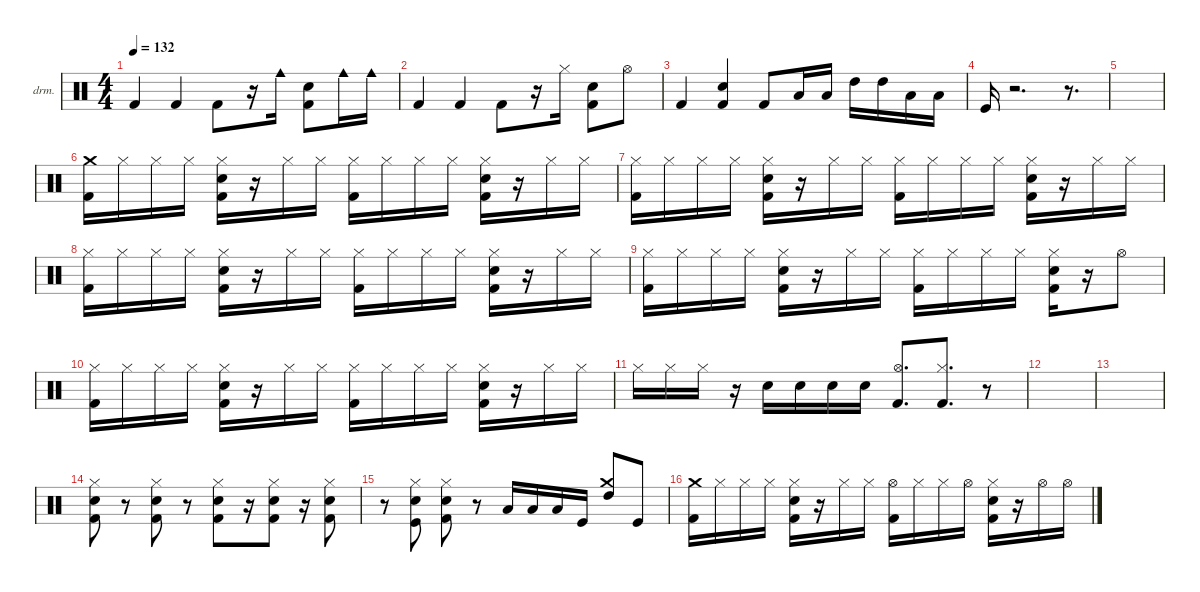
\defaultSystemsLayout 4
\hideDynamics
\bracketExtendMode nobrackets
\firstSystemTrackNameOrientation horizontal
\otherSystemsTrackNameOrientation horizontal
\track ("Drumkit" "drm.") {instrument percussion}
\staff {score}
\articulation defaults
\ts (4 4)
\tempo 132
\clef neutral
\ks c "Kick (hit) 2".4{dy mf beam Up} "Kick (hit) 2".4{beam Up} "Kick (hit) 2".8{beam Down}
r.16{beam Down} "Cowbell medium (hit)".16{beam Down} ("Snare (hit) 2" "Kick (hit) 2").8{beam Down} "Cowbell medium (hit)".16{beam Down} "Cowbell medium (hit)".16{beam Down} |
"Kick (hit) 2".4{beam Up} "Kick (hit) 2".4{beam Up} "Kick (hit) 2".8{beam Down} r.16{beam Down} "Hi-Hat (closed)".16{beam Down} ("Kick (hit) 2" "Snare (hit) 2").8{beam Down} "Hi-Hat (open)".8{beam Down} |
"Kick (hit) 2".4{beam Up} ("Kick (hit) 2" "Snare (hit) 2").4{beam Up} "Kick (hit) 2".8{beam Up} "Low Tom (hit)".16{beam Up} "Low Tom (hit)".16{beam Up} "High Tom (hit)".16{beam Down} "High Tom (hit)".16{beam Down} "Low Tom (hit)".16{beam Down} "Low Tom (hit)".16{beam Down} |
"Kick (hit)".16{beam Up} r.2{d beam Up} r.8{d beam Up} |
|
("Kick (hit) 2" "Crash medium (hit)").16{beam Down} "Hi-Hat (closed)".16{beam Down} "Hi-Hat (closed)".16{beam Down} "Hi-Hat (closed)".16{beam Down} ("Hi-Hat (closed)" "Kick (hit) 2" "Snare (hit) 2").16{beam Down} r.16{beam Down} "Hi-Hat (closed)".16{beam Down} "Hi-Hat (closed)".16{beam Down} ("Hi-Hat (closed)" "Kick (hit) 2").16{beam Down} "Hi-Hat (closed)".16{beam Down} "Hi-Hat (closed)".16{beam Down} "Hi-Hat (closed)".16{beam Down} ("Hi-Hat (closed)" "Kick (hit) 2" "Snare (hit) 2").16{beam Down} r.16{beam Down} "Hi-Hat (closed)".16{beam Down} "Hi-Hat (closed)".16{beam Down} |
("Kick (hit) 2" "Hi-Hat (closed)").16{beam Down} "Hi-Hat (closed)".16{beam Down} "Hi-Hat (closed)".16{beam Down} "Hi-Hat (closed)".16{beam Down} ("Hi-Hat (closed)" "Kick (hit) 2" "Snare (hit) 2").16{beam Down} r.16{beam Down} "Hi-Hat (closed)".16{beam Down} "Hi-Hat (closed)".16{beam Down} ("Hi-Hat (closed)" "Kick (hit) 2").16{beam Down} "Hi-Hat (closed)".16{beam Down} "Hi-Hat (closed)".16{beam Down} "Hi-Hat (closed)".16{beam Down} ("Hi-Hat (closed)" "Kick (hit) 2" "Snare (hit) 2").16{beam Down} r.16{beam Down} "Hi-Hat (closed)".16{beam Down} "Hi-Hat (closed)".16{beam Down} |
("Kick (hit) 2" "Hi-Hat (closed)").16{beam Down} "Hi-Hat (closed)".16{beam Down} "Hi-Hat (closed)".16{beam Down} "Hi-Hat (closed)".16{beam Down} ("Hi-Hat (closed)" "Kick (hit) 2" "Snare (hit) 2").16{beam Down} r.16{beam Down} "Hi-Hat (closed)".16{beam Down} "Hi-Hat (closed)".16{beam Down} ("Hi-Hat (closed)" "Kick (hit) 2").16{beam Down} "Hi-Hat (closed)".16{beam Down} "Hi-Hat (closed)".16{beam Down} "Hi-Hat (closed)".16{beam Down} ("Hi-Hat (closed)" "Kick (hit) 2" "Snare (hit) 2").16{beam Down} r.16{beam Down} "Hi-Hat (closed)".16{beam Down} "Hi-Hat (closed)".16{beam Down} |
("Kick (hit) 2" "Hi-Hat (closed)").16{beam Down} "Hi-Hat (closed)".16{beam Down} "Hi-Hat (closed)".16{beam Down} "Hi-Hat (closed)".16{beam Down} ("Hi-Hat (closed)" "Kick (hit) 2" "Snare (hit) 2").16{beam Down} r.16{beam Down} "Hi-Hat (closed)".16{beam Down} "Hi-Hat (closed)".16{beam Down} ("Hi-Hat (closed)" "Kick (hit) 2").16{beam Down} "Hi-Hat (closed)".16{beam Down} "Hi-Hat (closed)".16{beam Down} "Hi-Hat (closed)".16{beam Down} ("Hi-Hat (closed)" "Kick (hit) 2" "Snare (hit) 2").16{beam Down} r.16{beam Down} "Hi-Hat (open)".8{beam Down} |
("Kick (hit) 2" "Hi-Hat (closed)").16{beam Down} "Hi-Hat (closed)".16{beam Down} "Hi-Hat (closed)".16{beam Down} "Hi-Hat (closed)".16{beam Down} ("Hi-Hat (closed)" "Kick (hit) 2" "Snare (hit) 2").16{beam Down} r.16{beam Down} "Hi-Hat (closed)".16{beam Down} "Hi-Hat (closed)".16{beam Down} ("Hi-Hat (closed)" "Kick (hit) 2").16{beam Down} "Hi-Hat (closed)".16{beam Down} "Hi-Hat (closed)".16{beam Down} "Hi-Hat (closed)".16{beam Down} ("Hi-Hat (closed)" "Kick (hit) 2" "Snare (hit) 2").16{beam Down} r.16{beam Down} "Hi-Hat (closed)".16{beam Down} "Hi-Hat (closed)".16{beam Down} |
"Hi-Hat (closed)".16{beam Down} "Hi-Hat (closed)".16{beam Down} "Hi-Hat (closed)".16{beam Down} r.16{beam Down} "Snare (hit) 2".16{beam Down} "Snare (hit) 2".16{beam Down} "Snare (hit) 2".16{beam Down} "Snare (hit) 2".16{beam Down} ("Kick (hit) 2" "Hi-Hat (open)").8{d beam Up} ("Kick (hit) 2" "Hi-Hat (closed)").8{d beam Up} r.8{beam Up} |
|
|
("Hi-Hat (closed)" "Snare (hit) 2" "Kick (hit) 2").8{beam Down} r.8{beam Down} ("Hi-Hat (closed)" "Snare (hit) 2" "Kick (hit) 2").8{beam Down} r.8{beam Down} ("Hi-Hat (closed)" "Snare (hit) 2" "Kick (hit) 2").8{beam Down} r.16{beam Down} ("Hi-Hat (closed)" "Snare (hit) 2" "Kick (hit) 2").8{beam Down} r.16{beam Down} ("Hi-Hat (closed)" "Snare (hit) 2" "Kick (hit) 2").8{beam Down} |
r.8{beam Down} ("Kick (hit)" "Snare (hit) 2" "Hi-Hat (closed)").8{beam Down} ("Kick (hit) 2" "Snare (hit) 2" "Hi-Hat (closed)").8{beam Down} r.8{beam Down} "Low Tom (hit)".16{beam Up} "Low Tom (hit)".16{beam Up} "Low Tom (hit)".16{beam Up} "Kick (hit)".16{beam Up} ("High Tom (hit)" "Crash medium (hit)").8{beam Up} "Kick (hit)".8{beam Up} |
("Crash medium (hit)" "Kick (hit) 2").16{beam Down} "Hi-Hat (closed)".16{beam Down} "Hi-Hat (closed)".16{beam Down} "Hi-Hat (closed)".16{beam Down} ("Hi-Hat (closed)" "Kick (hit) 2" "Snare (hit) 2").16{beam Down} r.16{beam Down} "Hi-Hat (closed)".16{beam Down} "Hi-Hat (closed)".16{beam Down} ("Hi-Hat (open)" "Kick (hit) 2").16{beam Down} "Hi-Hat (closed)".16{beam Down} "Hi-Hat (closed)".16{beam Down} "Hi-Hat (open)".16{beam Down} ("Hi-Hat (closed)" "Snare (hit) 2" "Kick (hit) 2").16{beam Down} r.16{beam Down} "Hi-Hat (open)".16{beam Down} "Hi-Hat (open)".16{beam Down}
